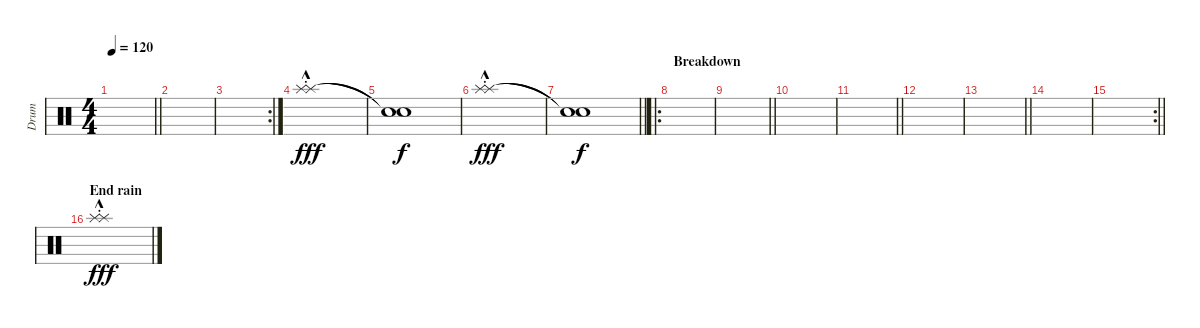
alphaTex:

\track ("Drum" "Drum") {instrument percussion}
\staff {score}
\articulation defaults
\ts (4 4)
\tempo 120
\clef neutral
\barLineRight lightlight
\ks c
|
|
\rc 2
|
("Splash (hit)"{hac st} "Splash (hit)"{hac}).1{dy fff volume 16} |
("Snare (hit)"{t} "Snare (hit)"{t}).1{dy f} |
("Splash (hit)"{hac st} "Splash (hit)"{hac}).1{dy fff volume 16} |
\barLineRight lightlight
("Snare (hit)"{t} "Snare (hit)"{t}).1{dy f} |
\ro
\section ("" "Breakdown")
|
\barLineRight lightlight
|
|
\barLineRight lightlight
|
|
\barLineRight lightlight
|
|
\rc 2
\barLineRight lightlight
|
\section ("" "End rain")
("Splash (hit)"{hac st} "Splash (hit)"{hac}).1{dy fff volume 16}
